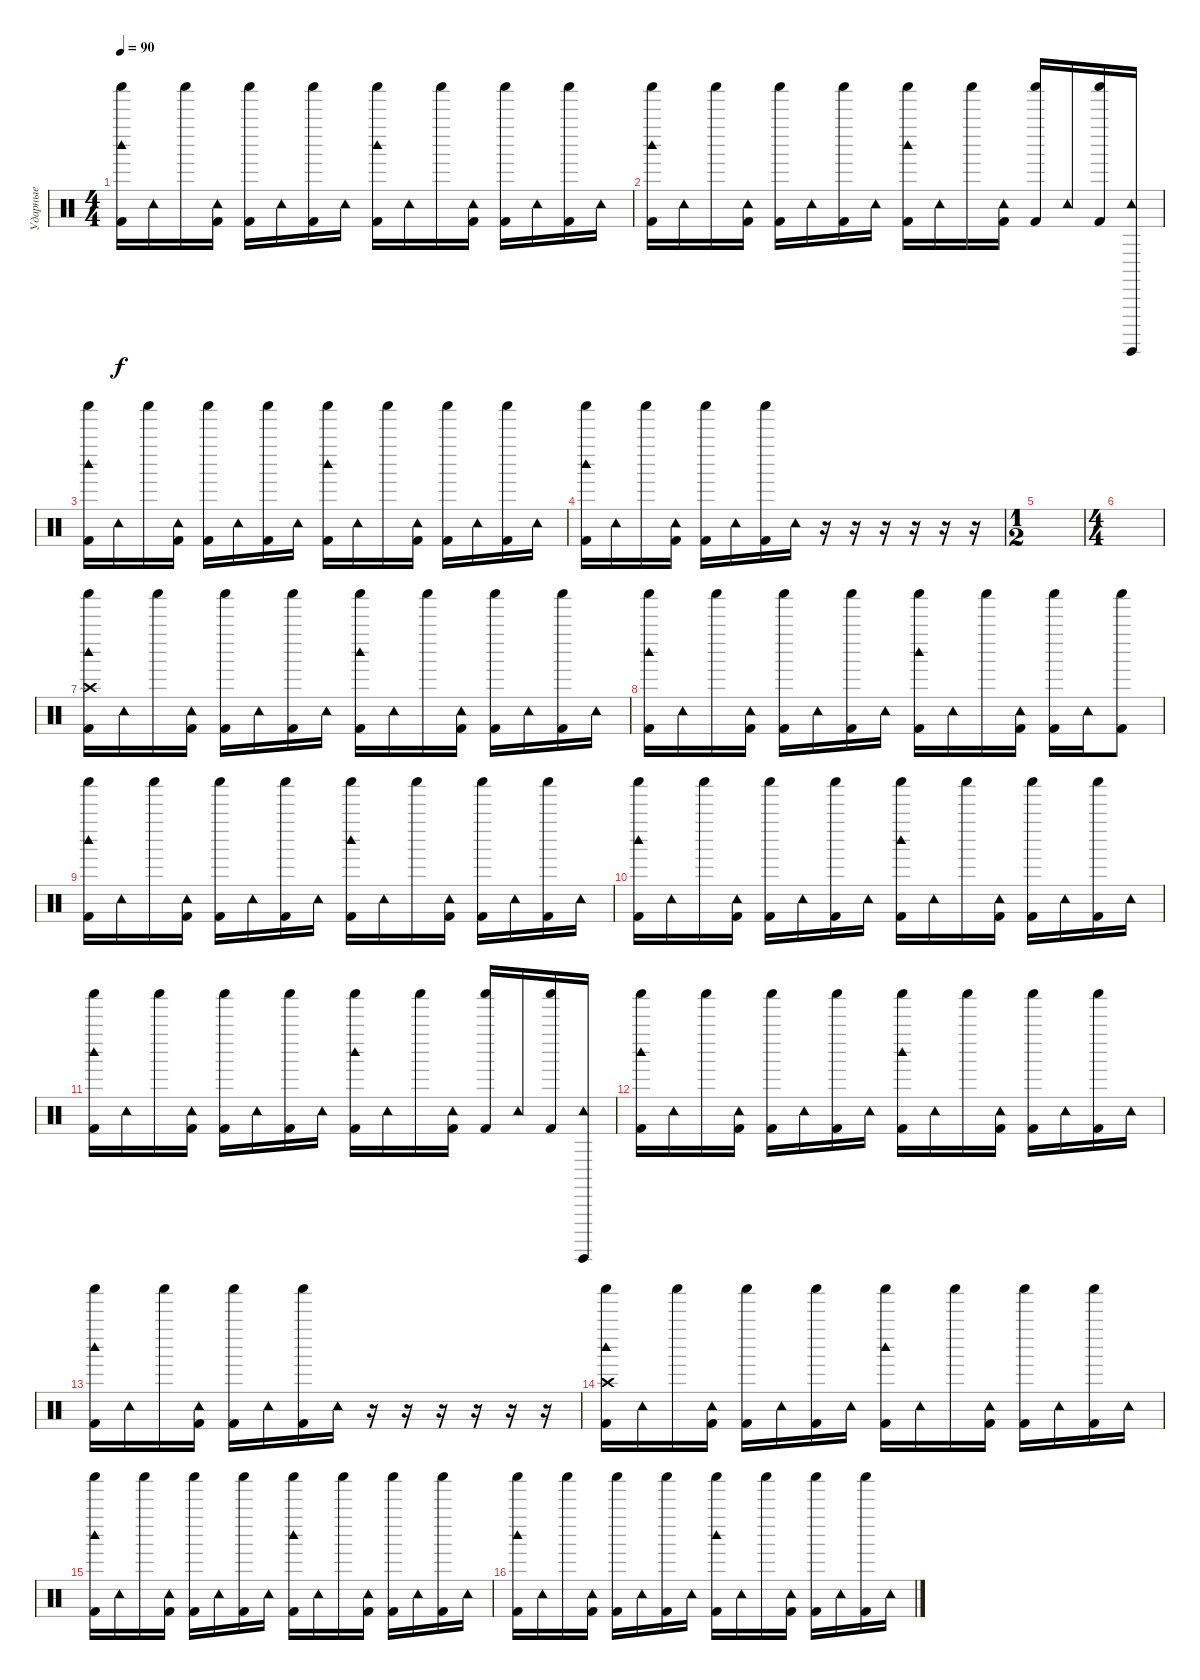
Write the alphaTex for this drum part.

\track ("Ударные" "Ударные") {instrument percussion}
\staff {score}
\articulation defaults
\ts (4 4)
\tempo 90
\clef neutral
\ks c
("Shaker (hit)" "Kick (hit) 2" "Woodblock high (hit)").16{dy f} "Tambourine (hit)".16 "Shaker (hit)".16 ("Tambourine (hit)" "Kick (hit) 2").16 ("Shaker (hit)" "Kick (hit) 2").16 "Tambourine (hit)".16 ("Shaker (hit)" "Kick (hit) 2").16 "Tambourine (hit)".16 ("Shaker (hit)" "Kick (hit) 2" "Woodblock high (hit)").16 "Tambourine (hit)".16 "Shaker (hit)".16 ("Tambourine (hit)" "Kick (hit) 2").16 ("Shaker (hit)" "Kick (hit) 2").16 "Tambourine (hit)".16 ("Shaker (hit)" "Kick (hit) 2").16 "Tambourine (hit)".16 |
("Shaker (hit)" "Kick (hit) 2" "Woodblock high (hit)").16 "Tambourine (hit)".16 "Shaker (hit)".16 ("Tambourine (hit)" "Kick (hit) 2").16 ("Shaker (hit)" "Kick (hit) 2").16 "Tambourine (hit)".16 ("Shaker (hit)" "Kick (hit) 2").16 "Tambourine (hit)".16 ("Shaker (hit)" "Kick (hit) 2" "Woodblock high (hit)").16 "Tambourine (hit)".16 "Shaker (hit)".16 ("Tambourine (hit)" "Kick (hit) 2").16 ("Shaker (hit)" "Kick (hit) 2").16 "Tambourine (hit)".16 ("Shaker (hit)" "Kick (hit) 2").16 ("Tambourine (hit)" "Surdo (hit)").16 |
("Shaker (hit)" "Kick (hit) 2" "Woodblock high (hit)").16 "Tambourine (hit)".16 "Shaker (hit)".16 ("Tambourine (hit)" "Kick (hit) 2").16 ("Shaker (hit)" "Kick (hit) 2").16 "Tambourine (hit)".16 ("Shaker (hit)" "Kick (hit) 2").16 "Tambourine (hit)".16 ("Shaker (hit)" "Kick (hit) 2" "Woodblock high (hit)").16 "Tambourine (hit)".16 "Shaker (hit)".16 ("Tambourine (hit)" "Kick (hit) 2").16 ("Shaker (hit)" "Kick (hit) 2").16 "Tambourine (hit)".16 ("Shaker (hit)" "Kick (hit) 2").16 "Tambourine (hit)".16 |
("Shaker (hit)" "Kick (hit) 2" "Woodblock high (hit)").16 "Tambourine (hit)".16 "Shaker (hit)".16 ("Tambourine (hit)" "Kick (hit) 2").16 ("Shaker (hit)" "Kick (hit) 2").16 "Tambourine (hit)".16 ("Shaker (hit)" "Kick (hit) 2").16 "Tambourine (hit)".16 r.16 r.16 r.16 r.16 r.16 r.16 |
\ts (1 2)
|
\ts (4 4)
|
("Shaker (hit)" "Kick (hit) 2" "Woodblock high (hit)" "Crash high (hit)").16 "Tambourine (hit)".16 "Shaker (hit)".16 ("Tambourine (hit)" "Kick (hit) 2").16 ("Shaker (hit)" "Kick (hit) 2").16 "Tambourine (hit)".16 ("Shaker (hit)" "Kick (hit) 2").16 "Tambourine (hit)".16 ("Shaker (hit)" "Kick (hit) 2" "Woodblock high (hit)").16 "Tambourine (hit)".16 "Shaker (hit)".16 ("Tambourine (hit)" "Kick (hit) 2").16 ("Shaker (hit)" "Kick (hit) 2").16 "Tambourine (hit)".16 ("Shaker (hit)" "Kick (hit) 2").16 "Tambourine (hit)".16 |
("Shaker (hit)" "Kick (hit) 2" "Woodblock high (hit)").16 "Tambourine (hit)".16 "Shaker (hit)".16 ("Tambourine (hit)" "Kick (hit) 2").16 ("Shaker (hit)" "Kick (hit) 2").16 "Tambourine (hit)".16 ("Shaker (hit)" "Kick (hit) 2").16 "Tambourine (hit)".16 ("Shaker (hit)" "Kick (hit) 2" "Woodblock high (hit)").16 "Tambourine (hit)".16 "Shaker (hit)".16 ("Tambourine (hit)" "Kick (hit) 2").16 ("Shaker (hit)" "Kick (hit) 2").16 "Tambourine (hit)".16 ("Shaker (hit)" "Kick (hit) 2").8 |
("Shaker (hit)" "Kick (hit) 2" "Woodblock high (hit)").16 "Tambourine (hit)".16 "Shaker (hit)".16 ("Tambourine (hit)" "Kick (hit) 2").16 ("Shaker (hit)" "Kick (hit) 2").16 "Tambourine (hit)".16 ("Shaker (hit)" "Kick (hit) 2").16 "Tambourine (hit)".16 ("Shaker (hit)" "Kick (hit) 2" "Woodblock high (hit)").16 "Tambourine (hit)".16 "Shaker (hit)".16 ("Tambourine (hit)" "Kick (hit) 2").16 ("Shaker (hit)" "Kick (hit) 2").16 "Tambourine (hit)".16 ("Shaker (hit)" "Kick (hit) 2").16 "Tambourine (hit)".16 |
("Shaker (hit)" "Kick (hit) 2" "Woodblock high (hit)").16 "Tambourine (hit)".16 "Shaker (hit)".16 ("Tambourine (hit)" "Kick (hit) 2").16 ("Shaker (hit)" "Kick (hit) 2").16 "Tambourine (hit)".16 ("Shaker (hit)" "Kick (hit) 2").16 "Tambourine (hit)".16 ("Shaker (hit)" "Kick (hit) 2" "Woodblock high (hit)").16 "Tambourine (hit)".16 "Shaker (hit)".16 ("Tambourine (hit)" "Kick (hit) 2").16 ("Shaker (hit)" "Kick (hit) 2").16 "Tambourine (hit)".16 ("Shaker (hit)" "Kick (hit) 2").16 "Tambourine (hit)".16 |
("Shaker (hit)" "Kick (hit) 2" "Woodblock high (hit)").16 "Tambourine (hit)".16 "Shaker (hit)".16 ("Tambourine (hit)" "Kick (hit) 2").16 ("Shaker (hit)" "Kick (hit) 2").16 "Tambourine (hit)".16 ("Shaker (hit)" "Kick (hit) 2").16 "Tambourine (hit)".16 ("Shaker (hit)" "Kick (hit) 2" "Woodblock high (hit)").16 "Tambourine (hit)".16 "Shaker (hit)".16 ("Tambourine (hit)" "Kick (hit) 2").16 ("Shaker (hit)" "Kick (hit) 2").16 "Tambourine (hit)".16 ("Shaker (hit)" "Kick (hit) 2").16 ("Tambourine (hit)" "Surdo (hit)").16 |
("Shaker (hit)" "Kick (hit) 2" "Woodblock high (hit)").16 "Tambourine (hit)".16 "Shaker (hit)".16 ("Tambourine (hit)" "Kick (hit) 2").16 ("Shaker (hit)" "Kick (hit) 2").16 "Tambourine (hit)".16 ("Shaker (hit)" "Kick (hit) 2").16 "Tambourine (hit)".16 ("Shaker (hit)" "Kick (hit) 2" "Woodblock high (hit)").16 "Tambourine (hit)".16 "Shaker (hit)".16 ("Tambourine (hit)" "Kick (hit) 2").16 ("Shaker (hit)" "Kick (hit) 2").16 "Tambourine (hit)".16 ("Shaker (hit)" "Kick (hit) 2").16 "Tambourine (hit)".16 |
("Shaker (hit)" "Kick (hit) 2" "Woodblock high (hit)").16 "Tambourine (hit)".16 "Shaker (hit)".16 ("Tambourine (hit)" "Kick (hit) 2").16 ("Shaker (hit)" "Kick (hit) 2").16 "Tambourine (hit)".16 ("Shaker (hit)" "Kick (hit) 2").16 "Tambourine (hit)".16 r.16 r.16 r.16 r.16 r.16 r.16 |
("Shaker (hit)" "Kick (hit) 2" "Woodblock high (hit)" "Crash high (hit)").16 "Tambourine (hit)".16 "Shaker (hit)".16 ("Tambourine (hit)" "Kick (hit) 2").16 ("Shaker (hit)" "Kick (hit) 2").16 "Tambourine (hit)".16 ("Shaker (hit)" "Kick (hit) 2").16 "Tambourine (hit)".16 ("Shaker (hit)" "Kick (hit) 2" "Woodblock high (hit)").16 "Tambourine (hit)".16 "Shaker (hit)".16 ("Tambourine (hit)" "Kick (hit) 2").16 ("Shaker (hit)" "Kick (hit) 2").16 "Tambourine (hit)".16 ("Shaker (hit)" "Kick (hit) 2").16 "Tambourine (hit)".16 |
("Shaker (hit)" "Kick (hit) 2" "Woodblock high (hit)").16 "Tambourine (hit)".16 "Shaker (hit)".16 ("Tambourine (hit)" "Kick (hit) 2").16 ("Shaker (hit)" "Kick (hit) 2").16 "Tambourine (hit)".16 ("Shaker (hit)" "Kick (hit) 2").16 "Tambourine (hit)".16 ("Shaker (hit)" "Kick (hit) 2" "Woodblock high (hit)").16 "Tambourine (hit)".16 "Shaker (hit)".16 ("Tambourine (hit)" "Kick (hit) 2").16 ("Shaker (hit)" "Kick (hit) 2").16 "Tambourine (hit)".16 ("Shaker (hit)" "Kick (hit) 2").16 "Tambourine (hit)".16 |
("Shaker (hit)" "Kick (hit) 2" "Woodblock high (hit)").16 "Tambourine (hit)".16 "Shaker (hit)".16 ("Tambourine (hit)" "Kick (hit) 2").16 ("Shaker (hit)" "Kick (hit) 2").16 "Tambourine (hit)".16 ("Shaker (hit)" "Kick (hit) 2").16 "Tambourine (hit)".16 ("Shaker (hit)" "Kick (hit) 2" "Woodblock high (hit)").16 "Tambourine (hit)".16 "Shaker (hit)".16 ("Tambourine (hit)" "Kick (hit) 2").16 ("Shaker (hit)" "Kick (hit) 2").16 "Tambourine (hit)".16 ("Shaker (hit)" "Kick (hit) 2").16 "Tambourine (hit)".16
